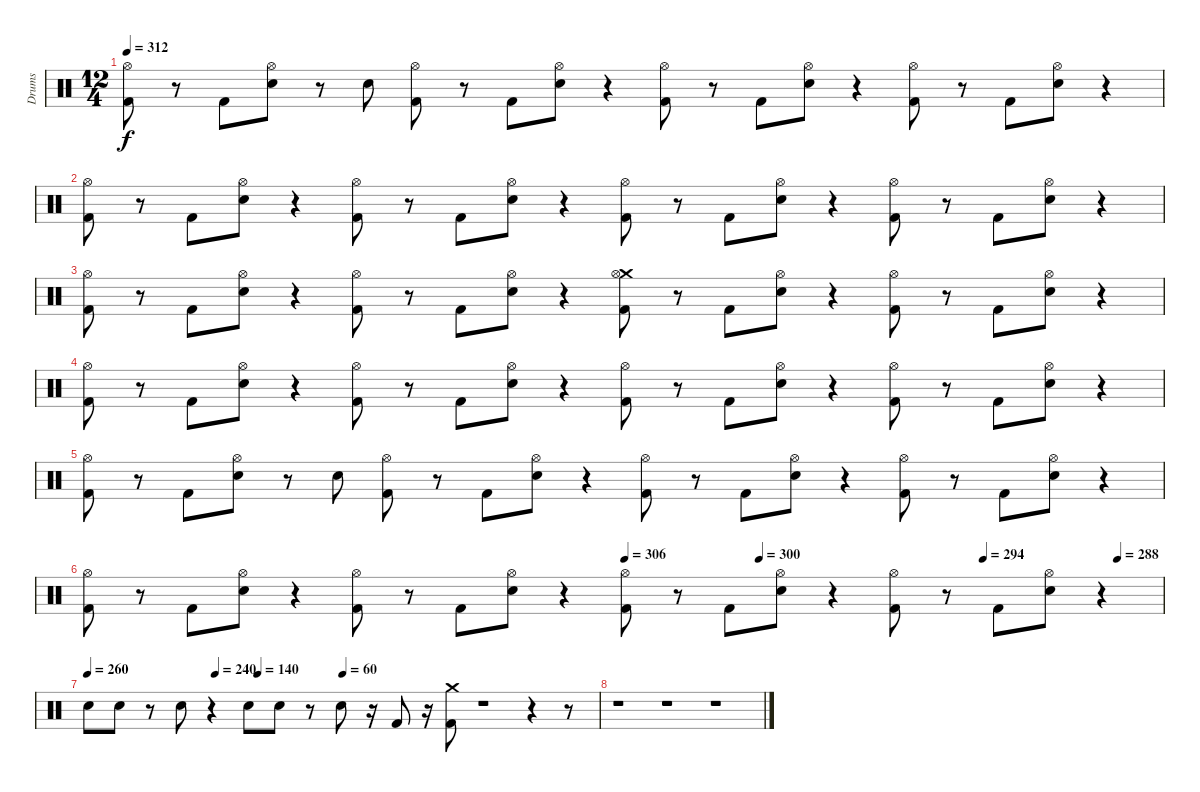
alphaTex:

\track ("Drums" "Drums") {instrument percussion}
\staff {score}
\articulation defaults
\ts (12 4)
\tempo 312
\clef neutral
\ks c
("Kick (hit) 2" "Hi-Hat (open)").8{dy f} r.8 "Kick (hit) 2".8 ("Hi-Hat (open)" "Electric Snare (hit)").8 r.8 "Electric Snare (hit)".8 ("Hi-Hat (open)" "Kick (hit) 2").8 r.8 "Kick (hit) 2".8 ("Electric Snare (hit)" "Hi-Hat (open)").8 r.4 ("Kick (hit) 2" "Hi-Hat (open)").8 r.8 "Kick (hit) 2".8 ("Electric Snare (hit)" "Hi-Hat (open)").8 r.4 ("Hi-Hat (open)" "Kick (hit) 2").8 r.8 "Kick (hit) 2".8 ("Electric Snare (hit)" "Hi-Hat (open)").8 r.4 |
("Kick (hit) 2" "Hi-Hat (open)").8 r.8 "Kick (hit) 2".8 ("Hi-Hat (open)" "Electric Snare (hit)").8 r.4 ("Hi-Hat (open)" "Kick (hit) 2").8 r.8 "Kick (hit) 2".8 ("Hi-Hat (open)" "Electric Snare (hit)").8 r.4 ("Hi-Hat (open)" "Kick (hit) 2").8 r.8 "Kick (hit) 2".8 ("Hi-Hat (open)" "Electric Snare (hit)").8 r.4 ("Kick (hit) 2" "Hi-Hat (open)").8 r.8 "Kick (hit) 2".8 ("Hi-Hat (open)" "Electric Snare (hit)").8 r.4 |
("Kick (hit) 2" "Hi-Hat (open)").8 r.8 "Kick (hit) 2".8 ("Electric Snare (hit)" "Hi-Hat (open)").8 r.4 ("Hi-Hat (open)" "Kick (hit) 2").8 r.8 "Kick (hit) 2".8 ("Hi-Hat (open)" "Electric Snare (hit)").8 r.4 ("Kick (hit) 2" "Crash medium (hit)" "Hi-Hat (open)").8 r.8 "Kick (hit) 2".8 ("Electric Snare (hit)" "Hi-Hat (open)").8 r.4 ("Kick (hit) 2" "Hi-Hat (open)").8 r.8 "Kick (hit) 2".8 ("Electric Snare (hit)" "Hi-Hat (open)").8 r.4 |
("Hi-Hat (open)" "Kick (hit) 2").8 r.8 "Kick (hit) 2".8 ("Hi-Hat (open)" "Electric Snare (hit)").8 r.4 ("Hi-Hat (open)" "Kick (hit) 2").8 r.8 "Kick (hit) 2".8 ("Hi-Hat (open)" "Electric Snare (hit)").8 r.4 ("Kick (hit) 2" "Hi-Hat (open)").8 r.8 "Kick (hit) 2".8 ("Hi-Hat (open)" "Electric Snare (hit)").8 r.4 ("Kick (hit) 2" "Hi-Hat (open)").8 r.8 "Kick (hit) 2".8 ("Electric Snare (hit)" "Hi-Hat (open)").8 r.4 |
("Kick (hit) 2" "Hi-Hat (open)").8 r.8 "Kick (hit) 2".8 ("Hi-Hat (open)" "Electric Snare (hit)").8 r.8 "Electric Snare (hit)".8 ("Hi-Hat (open)" "Kick (hit) 2").8 r.8 "Kick (hit) 2".8 ("Electric Snare (hit)" "Hi-Hat (open)").8 r.4 ("Kick (hit) 2" "Hi-Hat (open)").8 r.8 "Kick (hit) 2".8 ("Electric Snare (hit)" "Hi-Hat (open)").8 r.4 ("Hi-Hat (open)" "Kick (hit) 2").8 r.8 "Kick (hit) 2".8 ("Electric Snare (hit)" "Hi-Hat (open)").8 r.4 |
\tempo (306 0.5)
\tempo (300 0.625)
\tempo (294 0.8333333333333334)
\tempo (288 0.9583333333333334)
("Kick (hit) 2" "Hi-Hat (open)").8 r.8 "Kick (hit) 2".8 ("Hi-Hat (open)" "Electric Snare (hit)").8 r.4 ("Hi-Hat (open)" "Kick (hit) 2").8 r.8 "Kick (hit) 2".8 ("Hi-Hat (open)" "Electric Snare (hit)").8 r.4 ("Hi-Hat (open)" "Kick (hit) 2").8 r.8 "Kick (hit) 2".8 ("Hi-Hat (open)" "Electric Snare (hit)").8 r.4 ("Kick (hit) 2" "Hi-Hat (open)").8 r.8 "Kick (hit) 2".8 ("Hi-Hat (open)" "Electric Snare (hit)").8 r.4 |
\tempo 260
\tempo (240 0.25)
\tempo (140 0.3333333333333333)
\tempo (60 0.5)
"Electric Snare (hit)".8 "Electric Snare (hit)".8 r.8 "Electric Snare (hit)".8 r.4 "Electric Snare (hit)".8 "Electric Snare (hit)".8 r.8 "Electric Snare (hit)".8 r.16 "Kick (hit) 2".8 r.16 ("Kick (hit) 2" "Crash medium (hit)").8 r.1 r.4 r.8 |
r.1 r.1 r.1
